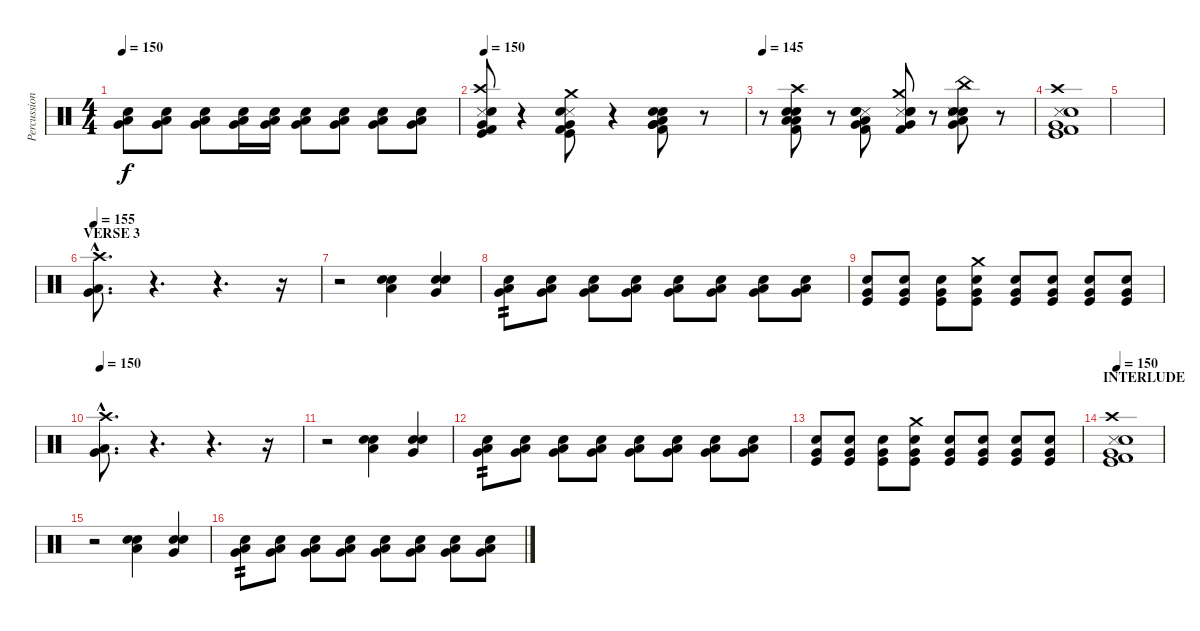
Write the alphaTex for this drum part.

\track ("Percussion-group" "Percussion") {instrument percussion}
\staff {score}
\articulation defaults
\ts (4 4)
\tempo 150
\clef neutral
\ks c
("Low Tom (hit)" "Very Low Tom (hit)" "Electric Snare (hit)").8{dy f} ("Low Tom (hit)" "Very Low Tom (hit)" "Electric Snare (hit)").8 ("Low Tom (hit)" "Very Low Tom (hit)" "Electric Snare (hit)").8 ("Low Tom (hit)" "Very Low Tom (hit)" "Electric Snare (hit)").16 ("Low Tom (hit)" "Very Low Tom (hit)" "Electric Snare (hit)").16 ("Low Tom (hit)" "Very Low Tom (hit)" "Electric Snare (hit)").8 ("Low Tom (hit)" "Very Low Tom (hit)" "Electric Snare (hit)").8 ("Low Tom (hit)" "Very Low Tom (hit)" "Electric Snare (hit)").8 ("Low Tom (hit)" "Very Low Tom (hit)" "Electric Snare (hit)").8 |
\tempo 150
("Very Low Tom (hit)" "Crash high (hit)" "Kick (hit)" "Metronome (hit)" "Kick (hit) 2" "Electric Snare (hit)").8 r.4 ("Very Low Tom (hit)" "Kick (hit)" "Crash medium (hit)" "Metronome (hit)" "Kick (hit) 2" "Electric Snare (hit)").8 r.4 ("Very Low Tom (hit)" "Very Low Tom (hit)" "Low Tom (hit)" "Kick (hit) 2" "Snare (hit) 2" "Electric Snare (hit)").8 r.8 |
\tempo 145
r.8 ("Low Tom (hit)" "Low Tom (hit)" "Crash high (hit)" "Kick (hit) 2" "Snare (hit) 2" "Electric Snare (hit)").8 r.8 ("Very Low Tom (hit)" "Low Tom (hit)" "Metronome (hit)" "Kick (hit) 2" "Snare (hit) 2" "Electric Snare (hit)").8 ("Very Low Tom (hit)" "Metronome (hit)" "Kick (hit) 2" "Crash medium (hit)" "Snare (hit) 2" "Electric Snare (hit)").8 r.8 ("Very Low Tom (hit)" "Low Tom (hit)" "Snare (hit) 2" "Electric Snare (hit)" "Metronome (hit)" "China (hit)").8 r.8 |
("Very Low Tom (hit)" "Crash high (hit)" "Kick (hit)" "Metronome (hit)" "Kick (hit) 2" "Electric Snare (hit)").1 |
|
\section ("" "VERSE 3")
\tempo 155
("Very Low Tom (hit)"{hac} "Low Tom (hit)"{hac} "Crash high (hit)"{hac}).8{d} r.4{d} r.4{d} r.16 |
r.2 ("Low Tom (hit)" "Electric Snare (hit)" "Snare (hit) 2").4 ("Very Low Tom (hit)" "Electric Snare (hit)" "Snare (hit) 2").4 |
("Low Tom (hit)" "Very Low Tom (hit)" "Electric Snare (hit)").8{tp 2} ("Low Tom (hit)" "Very Low Tom (hit)" "Electric Snare (hit)").8 ("Low Tom (hit)" "Very Low Tom (hit)" "Electric Snare (hit)").8 ("Low Tom (hit)" "Very Low Tom (hit)" "Electric Snare (hit)").8 ("Low Tom (hit)" "Very Low Tom (hit)" "Electric Snare (hit)").8 ("Low Tom (hit)" "Very Low Tom (hit)" "Electric Snare (hit)").8 ("Low Tom (hit)" "Very Low Tom (hit)" "Electric Snare (hit)").8 ("Low Tom (hit)" "Very Low Tom (hit)" "Electric Snare (hit)").8 |
("Very Low Tom (hit)" "Kick (hit)" "Electric Snare (hit)").8 ("Very Low Tom (hit)" "Kick (hit)" "Electric Snare (hit)").8 ("Very Low Tom (hit)" "Kick (hit)" "Electric Snare (hit)").8 ("Very Low Tom (hit)" "Kick (hit)" "Electric Snare (hit)" "Crash medium (hit)").8 ("Very Low Tom (hit)" "Kick (hit)" "Electric Snare (hit)").8 ("Very Low Tom (hit)" "Kick (hit)" "Electric Snare (hit)").8 ("Very Low Tom (hit)" "Kick (hit)" "Electric Snare (hit)").8 ("Very Low Tom (hit)" "Kick (hit)" "Electric Snare (hit)").8 |
\tempo 155
\tempo 150
("Very Low Tom (hit)"{hac} "Low Tom (hit)"{hac} "Crash high (hit)"{hac}).8{d} r.4{d} r.4{d} r.16 |
r.2 ("Low Tom (hit)" "Electric Snare (hit)" "Snare (hit) 2").4 ("Very Low Tom (hit)" "Electric Snare (hit)" "Snare (hit) 2").4 |
("Low Tom (hit)" "Very Low Tom (hit)" "Electric Snare (hit)").8{tp 2} ("Low Tom (hit)" "Very Low Tom (hit)" "Electric Snare (hit)").8 ("Low Tom (hit)" "Very Low Tom (hit)" "Electric Snare (hit)").8 ("Low Tom (hit)" "Very Low Tom (hit)" "Electric Snare (hit)").8 ("Low Tom (hit)" "Very Low Tom (hit)" "Electric Snare (hit)").8 ("Low Tom (hit)" "Very Low Tom (hit)" "Electric Snare (hit)").8 ("Low Tom (hit)" "Very Low Tom (hit)" "Electric Snare (hit)").8 ("Low Tom (hit)" "Very Low Tom (hit)" "Electric Snare (hit)").8 |
("Very Low Tom (hit)" "Kick (hit)" "Electric Snare (hit)").8 ("Very Low Tom (hit)" "Kick (hit)" "Electric Snare (hit)").8 ("Very Low Tom (hit)" "Kick (hit)" "Electric Snare (hit)").8 ("Very Low Tom (hit)" "Kick (hit)" "Electric Snare (hit)" "Crash medium (hit)").8 ("Very Low Tom (hit)" "Kick (hit)" "Electric Snare (hit)").8 ("Very Low Tom (hit)" "Kick (hit)" "Electric Snare (hit)").8 ("Very Low Tom (hit)" "Kick (hit)" "Electric Snare (hit)").8 ("Very Low Tom (hit)" "Kick (hit)" "Electric Snare (hit)").8 |
\section ("" "INTERLUDE")
\tempo 150
("Very Low Tom (hit)" "Crash high (hit)" "Kick (hit)" "Metronome (hit)" "Kick (hit) 2" "Electric Snare (hit)").1 |
r.2 ("Low Tom (hit)" "Electric Snare (hit)" "Snare (hit) 2").4 ("Very Low Tom (hit)" "Electric Snare (hit)" "Snare (hit) 2").4 |
("Low Tom (hit)" "Very Low Tom (hit)" "Electric Snare (hit)").8{tp 2} ("Low Tom (hit)" "Very Low Tom (hit)" "Electric Snare (hit)").8 ("Low Tom (hit)" "Very Low Tom (hit)" "Electric Snare (hit)").8 ("Low Tom (hit)" "Very Low Tom (hit)" "Electric Snare (hit)").8 ("Low Tom (hit)" "Very Low Tom (hit)" "Electric Snare (hit)").8 ("Low Tom (hit)" "Very Low Tom (hit)" "Electric Snare (hit)").8 ("Low Tom (hit)" "Very Low Tom (hit)" "Electric Snare (hit)").8 ("Low Tom (hit)" "Very Low Tom (hit)" "Electric Snare (hit)").8
